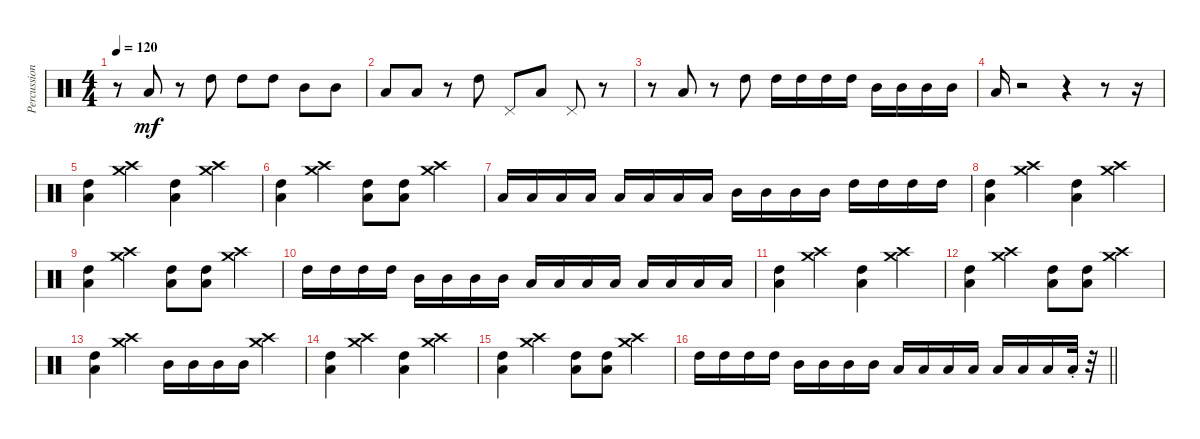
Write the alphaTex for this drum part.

\track ("Percussion" "Percussion") {instrument percussion}
\staff {score}
\articulation defaults
\ts (4 4)
\tempo 120
\clef neutral
\ks c
r.8{dy mf} "Low Tom (hit)".8 r.8 "High Tom (hit)".8 "High Tom (hit)".8 "High Tom (hit)".8 "Mid Tom (hit)".8 "Mid Tom (hit)".8 |
"Low Tom (hit)".8 "Low Tom (hit)".8 r.8 "High Tom (hit)".8 "Pedal Hi-Hat (hit)".8 "Low Tom (hit)".8 "Pedal Hi-Hat (hit)".8 r.8 |
r.8 "Low Tom (hit)".8 r.8 "High Tom (hit)".8 "High Tom (hit)".16 "High Tom (hit)".16 "High Tom (hit)".16 "High Tom (hit)".16 "Mid Tom (hit)".16 "Mid Tom (hit)".16 "Mid Tom (hit)".16 "Mid Tom (hit)".16 |
"Low Tom (hit)".16 r.2 r.4 r.8 r.16 |
("High Tom (hit)" "Low Tom (hit)").4 ("Crash high (hit)" "Crash medium (hit)").4 ("High Tom (hit)" "Low Tom (hit)").4 ("Crash high (hit)" "Crash medium (hit)").4 |
("High Tom (hit)" "Low Tom (hit)").4 ("Crash high (hit)" "Crash medium (hit)").4 ("High Tom (hit)" "Low Tom (hit)").8 ("High Tom (hit)" "Low Tom (hit)").8 ("Crash high (hit)" "Crash medium (hit)").4 |
"Low Floor Tom (hit)".16 "Low Floor Tom (hit)".16 "Low Floor Tom (hit)".16 "Low Floor Tom (hit)".16 "Low Tom (hit)".16 "Low Tom (hit)".16 "Low Tom (hit)".16 "Low Tom (hit)".16 "Mid Tom (hit)".16 "Mid Tom (hit)".16 "Mid Tom (hit)".16 "Mid Tom (hit)".16 "High Tom (hit)".16 "High Tom (hit)".16 "High Tom (hit)".16 "High Tom (hit)".16 |
("High Tom (hit)" "Low Tom (hit)").4 ("Crash high (hit)" "Crash medium (hit)").4 ("High Tom (hit)" "Low Tom (hit)").4 ("Crash high (hit)" "Crash medium (hit)").4 |
("High Tom (hit)" "Low Tom (hit)").4 ("Crash high (hit)" "Crash medium (hit)").4 ("High Tom (hit)" "Low Tom (hit)").8 ("High Tom (hit)" "Low Tom (hit)").8 ("Crash high (hit)" "Crash medium (hit)").4 |
"High Tom (hit)".16 "High Tom (hit)".16 "High Tom (hit)".16 "High Tom (hit)".16 "Mid Tom (hit)".16 "Mid Tom (hit)".16 "Mid Tom (hit)".16 "Mid Tom (hit)".16 "Low Tom (hit)".16 "Low Tom (hit)".16 "Low Tom (hit)".16 "Low Tom (hit)".16 "Low Floor Tom (hit)".16 "Low Floor Tom (hit)".16 "Low Floor Tom (hit)".16 "Low Floor Tom (hit)".16 |
("High Tom (hit)" "Low Tom (hit)").4 ("Crash high (hit)" "Crash medium (hit)").4 ("High Tom (hit)" "Low Tom (hit)").4 ("Crash high (hit)" "Crash medium (hit)").4 |
("High Tom (hit)" "Low Tom (hit)").4 ("Crash high (hit)" "Crash medium (hit)").4 ("High Tom (hit)" "Low Tom (hit)").8 ("High Tom (hit)" "Low Tom (hit)").8 ("Crash high (hit)" "Crash medium (hit)").4 |
("High Tom (hit)" "Low Tom (hit)").4 ("Crash high (hit)" "Crash medium (hit)").4 "Mid Tom (hit)".16 "Mid Tom (hit)".16 "Mid Tom (hit)".16 "Mid Tom (hit)".16 ("Crash medium (hit)" "Crash high (hit)").4 |
("High Tom (hit)" "Low Tom (hit)").4 ("Crash high (hit)" "Crash medium (hit)").4 ("High Tom (hit)" "Low Tom (hit)").4 ("Crash high (hit)" "Crash medium (hit)").4 |
("High Tom (hit)" "Low Tom (hit)").4 ("Crash high (hit)" "Crash medium (hit)").4 ("High Tom (hit)" "Low Tom (hit)").8 ("High Tom (hit)" "Low Tom (hit)").8 ("Crash high (hit)" "Crash medium (hit)").4 |
\barLineRight lightlight "High Tom (hit)".16 "High Tom (hit)".16 "High Tom (hit)".16 "High Tom (hit)".16 "Mid Tom (hit)".16 "Mid Tom (hit)".16 "Mid Tom (hit)".16 "Mid Tom (hit)".16 "Low Tom (hit)".16 "Low Tom (hit)".16 "Low Tom (hit)".16 "Low Tom (hit)".16 "Low Floor Tom (hit)".16 "Low Floor Tom (hit)".16 "Low Floor Tom (hit)".16 "Low Floor Tom (hit)"{st}.32
r.32
